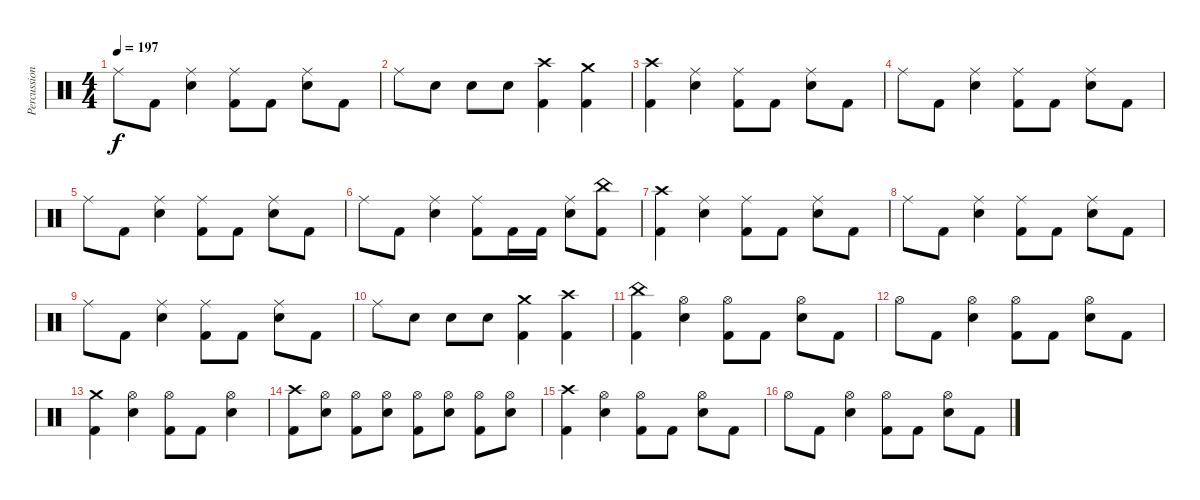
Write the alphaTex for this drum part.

\track ("Percussions" "Percussion") {instrument percussion}
\staff {score}
\articulation defaults
\ts (4 4)
\tempo 197
\clef neutral
\ks c "Ride (middle)".8{dy f} "Kick (hit) 2".8
("Ride (middle)" "Snare (hit) 2").4 ("Ride (middle)" "Kick (hit) 2").8 "Kick (hit) 2".8 ("Ride (middle)" "Snare (hit) 2").8 "Kick (hit) 2".8 |
"Ride (middle)".8 "Snare (hit) 2".8 "Snare (hit) 2".8 "Snare (hit) 2".8 ("Crash high (hit)" "Kick (hit) 2").4 ("Crash medium (hit)" "Kick (hit) 2").4 |
("Crash high (hit)" "Kick (hit) 2").4 ("Ride (middle)" "Snare (hit) 2").4 ("Ride (middle)" "Kick (hit) 2").8 "Kick (hit) 2".8 ("Ride (middle)" "Snare (hit) 2").8 "Kick (hit) 2".8 |
"Ride (middle)".8 "Kick (hit) 2".8 ("Ride (middle)" "Snare (hit) 2").4 ("Ride (middle)" "Kick (hit) 2").8 "Kick (hit) 2".8 ("Ride (middle)" "Snare (hit) 2").8 "Kick (hit) 2".8 |
"Ride (middle)".8 "Kick (hit) 2".8 ("Ride (middle)" "Snare (hit) 2").4 ("Ride (middle)" "Kick (hit) 2").8 "Kick (hit) 2".8 ("Ride (middle)" "Snare (hit) 2").8 "Kick (hit) 2".8 |
"Ride (middle)".8 "Kick (hit) 2".8 ("Ride (middle)" "Snare (hit) 2").4 ("Ride (middle)" "Kick (hit) 2").8 "Kick (hit) 2".16 "Kick (hit) 2".16 ("Ride (middle)" "Snare (hit) 2").8 ("China (hit)" "Kick (hit) 2").8 |
("Crash high (hit)" "Kick (hit) 2").4 ("Ride (middle)" "Snare (hit) 2").4 ("Ride (middle)" "Kick (hit) 2").8 "Kick (hit) 2".8 ("Ride (middle)" "Snare (hit) 2").8 "Kick (hit) 2".8 |
"Ride (middle)".8 "Kick (hit) 2".8 ("Ride (middle)" "Snare (hit) 2").4 ("Ride (middle)" "Kick (hit) 2").8 "Kick (hit) 2".8 ("Ride (middle)" "Snare (hit) 2").8 "Kick (hit) 2".8 |
"Ride (middle)".8 "Kick (hit) 2".8 ("Ride (middle)" "Snare (hit) 2").4 ("Ride (middle)" "Kick (hit) 2").8 "Kick (hit) 2".8 ("Ride (middle)" "Snare (hit) 2").8 "Kick (hit) 2".8 |
"Ride (middle)".8 "Snare (hit) 2".8 "Snare (hit) 2".8 "Snare (hit) 2".8 ("Crash medium (hit)" "Kick (hit) 2").4 ("Crash high (hit)" "Kick (hit) 2").4 |
("China (hit)" "Kick (hit) 2").4 ("Hi-Hat (open)" "Snare (hit) 2").4 ("Hi-Hat (open)" "Kick (hit) 2").8 "Kick (hit) 2".8 ("Hi-Hat (open)" "Snare (hit) 2").8 "Kick (hit) 2".8 |
"Hi-Hat (open)".8 "Kick (hit) 2".8 ("Hi-Hat (open)" "Snare (hit) 2").4 ("Hi-Hat (open)" "Kick (hit) 2").8 "Kick (hit) 2".8 ("Hi-Hat (open)" "Snare (hit) 2").8 "Kick (hit) 2".8 |
("Crash medium (hit)" "Kick (hit) 2").4 ("Hi-Hat (open)" "Snare (hit) 2").4 ("Hi-Hat (open)" "Kick (hit) 2").8 "Kick (hit) 2".8 ("Hi-Hat (open)" "Snare (hit) 2").4 |
("Crash high (hit)" "Kick (hit) 2").8 ("Hi-Hat (open)" "Snare (hit) 2").8 ("Hi-Hat (open)" "Kick (hit) 2").8 ("Hi-Hat (open)" "Snare (hit) 2").8 ("Hi-Hat (open)" "Kick (hit) 2").8 ("Hi-Hat (open)" "Snare (hit) 2").8 ("Hi-Hat (open)" "Kick (hit) 2").8 ("Hi-Hat (open)" "Snare (hit) 2").8 |
("Crash high (hit)" "Kick (hit) 2").4 ("Hi-Hat (open)" "Snare (hit) 2").4 ("Hi-Hat (open)" "Kick (hit) 2").8 "Kick (hit) 2".8 ("Hi-Hat (open)" "Snare (hit) 2").8 "Kick (hit) 2".8 |
"Hi-Hat (open)".8 "Kick (hit) 2".8 ("Hi-Hat (open)" "Snare (hit) 2").4 ("Hi-Hat (open)" "Kick (hit) 2").8 "Kick (hit) 2".8 ("Hi-Hat (open)" "Snare (hit) 2").8 "Kick (hit) 2".8
